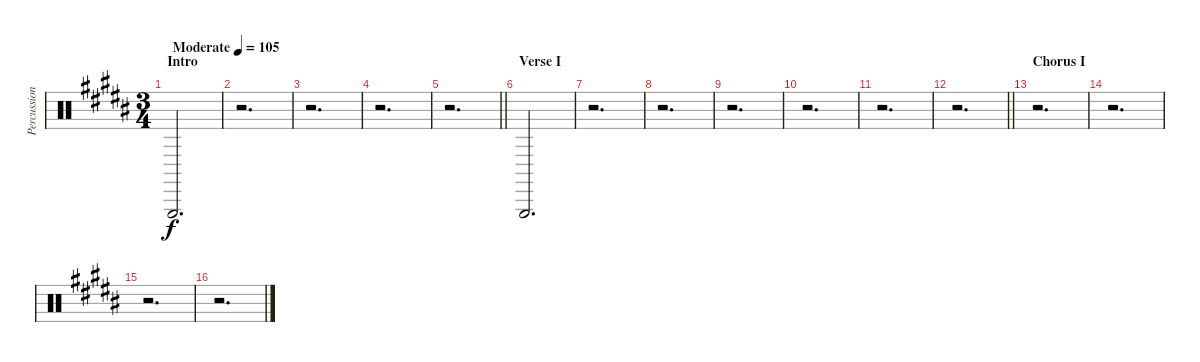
\track ("Percussion" "Percussion") {instrument percussion}
\staff {score}
\articulation defaults
\ts (3 4)
\section ("" "Intro")
\tempo (105 "Moderate")
\clef neutral
\ks b "Triangle (hit)".2{d dy f}
|
r.2{d} |
r.2{d} |
r.2{d} |
\barLineRight lightlight
r.2{d} |
\section ("" "Verse I")
"Triangle (hit)".2{d} |
r.2{d} |
r.2{d} |
r.2{d} |
r.2{d} |
r.2{d} |
\barLineRight lightlight
r.2{d} |
\section ("" "Chorus I")
r.2{d} |
r.2{d} |
r.2{d} |
r.2{d}
